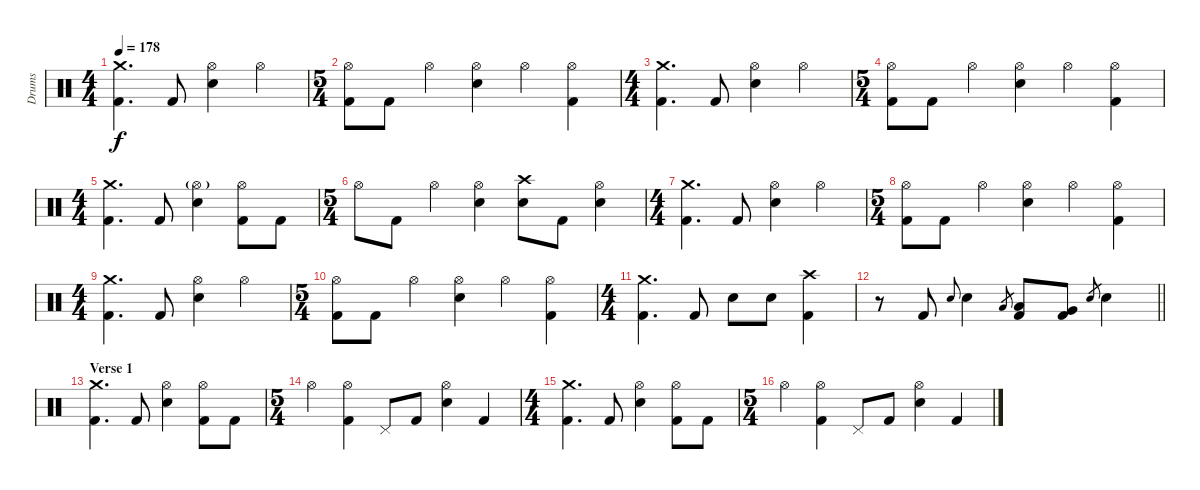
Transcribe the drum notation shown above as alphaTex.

\track ("Drums" "Drums") {instrument percussion}
\staff {score}
\articulation defaults
\ts (4 4)
\tempo 178
\clef neutral
\ks c
("Crash medium (hit)" "Kick (hit) 2").4{d dy f} "Kick (hit) 2".8 ("Hi-Hat (open)" "Electric Snare (hit)").4 "Hi-Hat (open)".4 |
\ts (5 4)
("Hi-Hat (open)" "Kick (hit) 2").8 "Kick (hit) 2".8 "Hi-Hat (open)".4 ("Hi-Hat (open)" "Electric Snare (hit)").4 "Hi-Hat (open)".4 ("Hi-Hat (open)" "Kick (hit) 2").4 |
\ts (4 4)
("Crash medium (hit)" "Kick (hit) 2").4{d} "Kick (hit) 2".8 ("Hi-Hat (open)" "Electric Snare (hit)").4 "Hi-Hat (open)".4 |
\ts (5 4)
("Hi-Hat (open)" "Kick (hit) 2").8 "Kick (hit) 2".8 "Hi-Hat (open)".4 ("Hi-Hat (open)" "Electric Snare (hit)").4 "Hi-Hat (open)".4 ("Hi-Hat (open)" "Kick (hit) 2").4 |
\ts (4 4)
("Crash medium (hit)" "Kick (hit) 2").4{d} "Kick (hit) 2".8 ("Hi-Hat (open)"{g} "Electric Snare (hit)").4 ("Hi-Hat (open)" "Kick (hit) 2").8 "Kick (hit) 2".8 |
\ts (5 4)
"Hi-Hat (open)".8 "Kick (hit) 2".8 "Hi-Hat (open)".4 ("Hi-Hat (open)" "Electric Snare (hit)").4 ("Crash high (hit)" "Electric Snare (hit)").8 "Kick (hit) 2".8 ("Hi-Hat (open)" "Electric Snare (hit)").4 |
\ts (4 4)
("Crash medium (hit)" "Kick (hit) 2").4{d} "Kick (hit) 2".8 ("Hi-Hat (open)" "Electric Snare (hit)").4 "Hi-Hat (open)".4 |
\ts (5 4)
("Hi-Hat (open)" "Kick (hit) 2").8 "Kick (hit) 2".8 "Hi-Hat (open)".4 ("Hi-Hat (open)" "Electric Snare (hit)").4 "Hi-Hat (open)".4 ("Hi-Hat (open)" "Kick (hit) 2").4 |
\ts (4 4)
("Crash medium (hit)" "Kick (hit) 2").4{d} "Kick (hit) 2".8 ("Hi-Hat (open)" "Electric Snare (hit)").4 "Hi-Hat (open)".4 |
\ts (5 4)
("Hi-Hat (open)" "Kick (hit) 2").8 "Kick (hit) 2".8 "Hi-Hat (open)".4 ("Hi-Hat (open)" "Electric Snare (hit)").4 "Hi-Hat (open)".4 ("Hi-Hat (open)" "Kick (hit) 2").4 |
\ts (4 4)
("Crash medium (hit)" "Kick (hit) 2").4{d} "Kick (hit) 2".8 "Electric Snare (hit)".8 "Electric Snare (hit)".8 ("Crash high (hit)" "Kick (hit) 2").4 |
\barLineRight lightlight
r.8 "Kick (hit) 2".8 "Electric Snare (hit)".8{gr onbeat} "Electric Snare (hit)".4 "Low Tom (hit)".8{gr} ("Low Tom (hit)" "Kick (hit) 2").8 ("Very Low Tom (hit)" "Kick (hit) 2").8 "Electric Snare (hit)".8{gr} "Electric Snare (hit)".4 |
\section ("" "Verse 1")
("Crash medium (hit)" "Kick (hit) 2").4{d} "Kick (hit) 2".8 ("Hi-Hat (open)" "Electric Snare (hit)").4 ("Hi-Hat (open)" "Kick (hit) 2").8 "Kick (hit) 2".8 |
\ts (5 4)
"Hi-Hat (open)".4 ("Hi-Hat (open)" "Kick (hit) 2").4 "Pedal Hi-Hat (hit)".8 "Kick (hit) 2".8 ("Hi-Hat (open)" "Electric Snare (hit)").4 "Kick (hit) 2".4 |
\ts (4 4)
("Crash medium (hit)" "Kick (hit) 2").4{d} "Kick (hit) 2".8 ("Hi-Hat (open)" "Electric Snare (hit)").4 ("Hi-Hat (open)" "Kick (hit) 2").8 "Kick (hit) 2".8 |
\ts (5 4)
"Hi-Hat (open)".4 ("Hi-Hat (open)" "Kick (hit) 2").4 "Pedal Hi-Hat (hit)".8 "Kick (hit) 2".8 ("Hi-Hat (open)" "Electric Snare (hit)").4 "Kick (hit) 2".4
